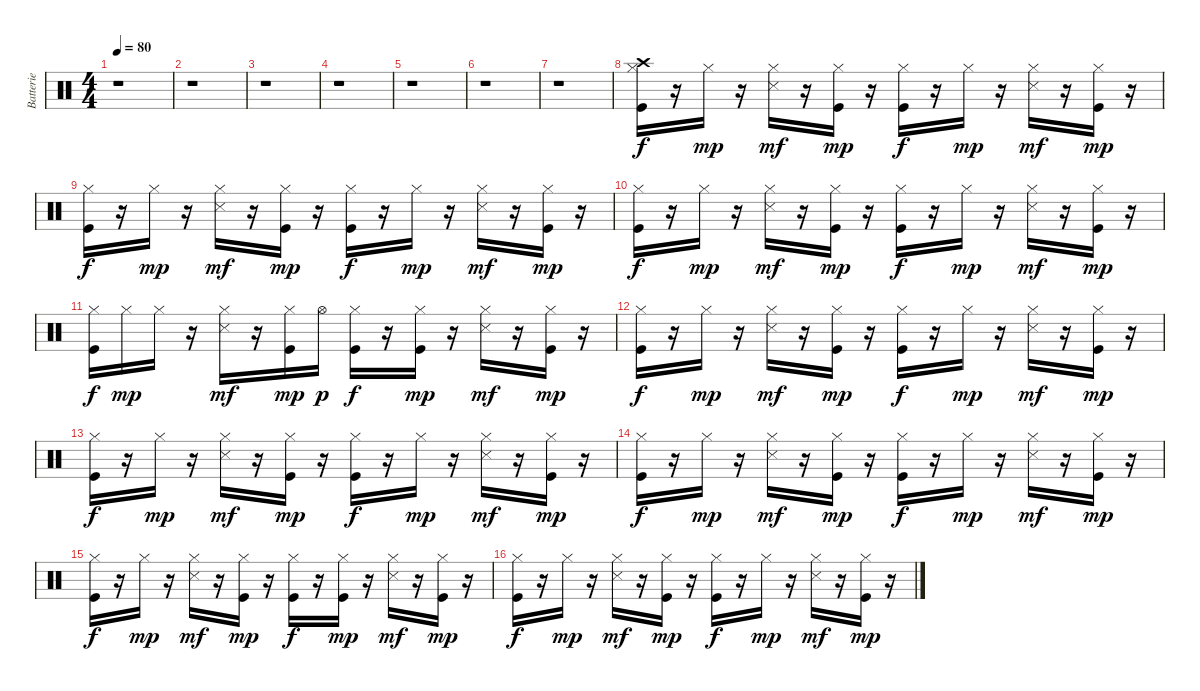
\track ("Batterie" "Batterie") {instrument percussion}
\staff {score}
\articulation defaults
\ts (4 4)
\tempo 80
\clef neutral
\ks c
r.1{dy f} |
r.1 |
r.1 |
r.1 |
r.1 |
r.1 |
r.1 |
("Kick (hit)" "Hi-Hat (closed)" "Crash high (hit)").16 r.16 "Hi-Hat (closed)".16{dy mp} r.16 ("Hi-Hat (closed)" "Snare (side stick) 3").16{dy mf} r.16 ("Kick (hit)" "Hi-Hat (closed)").16{dy mp} r.16 ("Kick (hit)" "Hi-Hat (closed)").16{dy f} r.16 "Hi-Hat (closed)".16{dy mp} r.16 ("Hi-Hat (closed)" "Snare (side stick) 3").16{dy mf} r.16 ("Kick (hit)" "Hi-Hat (closed)").16{dy mp} r.16 |
("Kick (hit)" "Hi-Hat (closed)").16{dy f} r.16 "Hi-Hat (closed)".16{dy mp} r.16 ("Hi-Hat (closed)" "Snare (side stick) 3").16{dy mf} r.16 ("Kick (hit)" "Hi-Hat (closed)").16{dy mp} r.16 ("Kick (hit)" "Hi-Hat (closed)").16{dy f} r.16 "Hi-Hat (closed)".16{dy mp} r.16 ("Hi-Hat (closed)" "Snare (side stick) 3").16{dy mf} r.16 ("Kick (hit)" "Hi-Hat (closed)").16{dy mp} r.16 |
("Kick (hit)" "Hi-Hat (closed)").16{dy f} r.16 "Hi-Hat (closed)".16{dy mp} r.16 ("Hi-Hat (closed)" "Snare (side stick) 3").16{dy mf} r.16 ("Kick (hit)" "Hi-Hat (closed)").16{dy mp} r.16 ("Kick (hit)" "Hi-Hat (closed)").16{dy f} r.16 "Hi-Hat (closed)".16{dy mp} r.16 ("Hi-Hat (closed)" "Snare (side stick) 3").16{dy mf} r.16 ("Kick (hit)" "Hi-Hat (closed)").16{dy mp} r.16 |
("Kick (hit)" "Hi-Hat (closed)").16{dy f} "Hi-Hat (closed)".16{dy mp} "Hi-Hat (closed)".16 r.16 ("Hi-Hat (closed)" "Snare (side stick) 3").16{dy mf} r.16 ("Kick (hit)" "Hi-Hat (closed)").16{dy mp} "Hi-Hat (open)".16{dy p} ("Kick (hit)" "Hi-Hat (closed)").16{dy f} r.16 ("Kick (hit)" "Hi-Hat (closed)").16{dy mp} r.16 ("Hi-Hat (closed)" "Snare (side stick) 3").16{dy mf} r.16 ("Kick (hit)" "Hi-Hat (closed)").16{dy mp} r.16 |
("Kick (hit)" "Hi-Hat (closed)").16{dy f} r.16 "Hi-Hat (closed)".16{dy mp} r.16 ("Hi-Hat (closed)" "Snare (side stick) 3").16{dy mf} r.16 ("Kick (hit)" "Hi-Hat (closed)").16{dy mp} r.16 ("Kick (hit)" "Hi-Hat (closed)").16{dy f} r.16 "Hi-Hat (closed)".16{dy mp} r.16 ("Hi-Hat (closed)" "Snare (side stick) 3").16{dy mf} r.16 ("Kick (hit)" "Hi-Hat (closed)").16{dy mp} r.16 |
("Kick (hit)" "Hi-Hat (closed)").16{dy f} r.16 "Hi-Hat (closed)".16{dy mp} r.16 ("Hi-Hat (closed)" "Snare (side stick) 3").16{dy mf} r.16 ("Kick (hit)" "Hi-Hat (closed)").16{dy mp} r.16 ("Kick (hit)" "Hi-Hat (closed)").16{dy f} r.16 "Hi-Hat (closed)".16{dy mp} r.16 ("Hi-Hat (closed)" "Snare (side stick) 3").16{dy mf} r.16 ("Kick (hit)" "Hi-Hat (closed)").16{dy mp} r.16 |
("Kick (hit)" "Hi-Hat (closed)").16{dy f} r.16 "Hi-Hat (closed)".16{dy mp} r.16 ("Hi-Hat (closed)" "Snare (side stick) 3").16{dy mf} r.16 ("Kick (hit)" "Hi-Hat (closed)").16{dy mp} r.16 ("Kick (hit)" "Hi-Hat (closed)").16{dy f} r.16 "Hi-Hat (closed)".16{dy mp} r.16 ("Hi-Hat (closed)" "Snare (side stick) 3").16{dy mf} r.16 ("Kick (hit)" "Hi-Hat (closed)").16{dy mp} r.16 |
("Kick (hit)" "Hi-Hat (closed)").16{dy f} r.16 "Hi-Hat (closed)".16{dy mp} r.16 ("Hi-Hat (closed)" "Snare (side stick) 3").16{dy mf} r.16 ("Kick (hit)" "Hi-Hat (closed)").16{dy mp} r.16 ("Kick (hit)" "Hi-Hat (closed)").16{dy f} r.16 ("Kick (hit)" "Hi-Hat (closed)").16{dy mp} r.16 ("Hi-Hat (closed)" "Snare (side stick) 3").16{dy mf} r.16 ("Kick (hit)" "Hi-Hat (closed)").16{dy mp} r.16 |
("Kick (hit)" "Hi-Hat (closed)").16{dy f} r.16 "Hi-Hat (closed)".16{dy mp} r.16 ("Hi-Hat (closed)" "Snare (side stick) 3").16{dy mf} r.16 ("Kick (hit)" "Hi-Hat (closed)").16{dy mp} r.16 ("Kick (hit)" "Hi-Hat (closed)").16{dy f} r.16 "Hi-Hat (closed)".16{dy mp} r.16 ("Hi-Hat (closed)" "Snare (side stick) 3").16{dy mf} r.16 ("Kick (hit)" "Hi-Hat (closed)").16{dy mp} r.16
